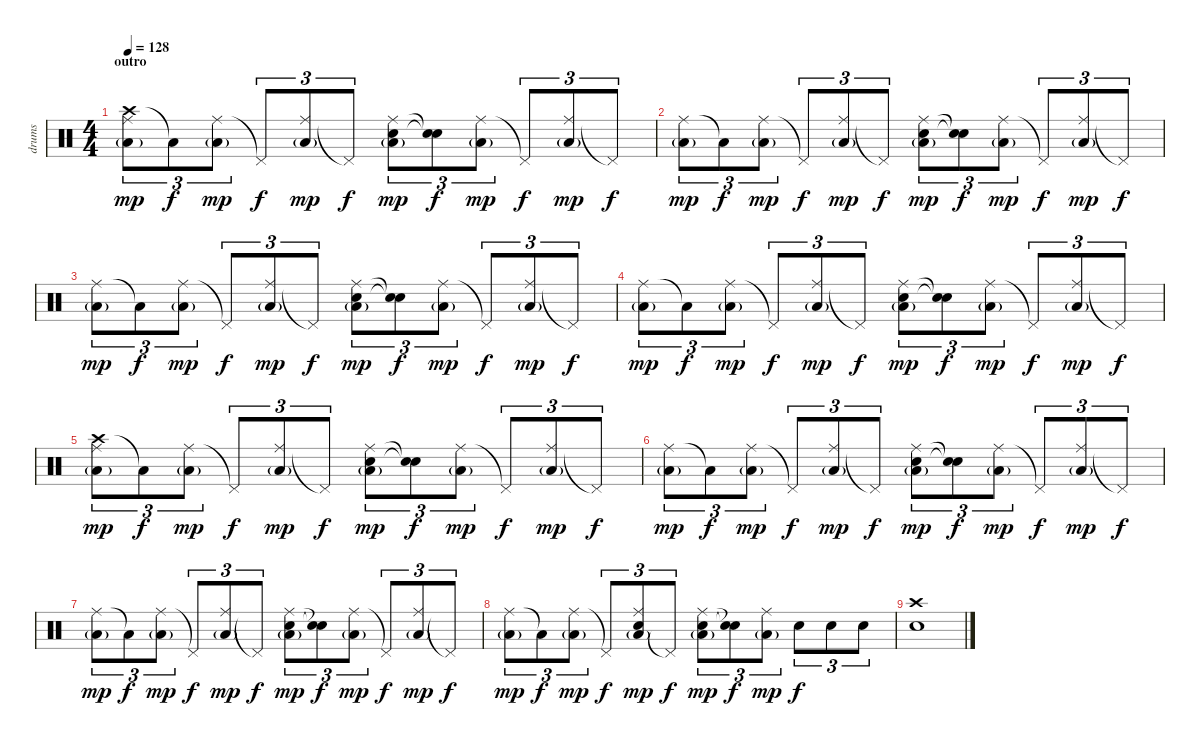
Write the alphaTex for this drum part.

\track ("drums" "drums") {instrument percussion}
\staff {score}
\articulation defaults
\ts (4 4)
\section ("" "outro")
\tempo 128
\clef neutral
\ks c
("Crash high (hit)" "Ride (middle)" "Low Floor Tom (hit)"{g}).8{tu (3 2) dy mp} "Low Floor Tom (hit)"{t}.8{tu (3 2) dy f} ("Ride (middle)" "Low Floor Tom (hit)"{g}).8{tu (3 2) dy mp} "Pedal Hi-Hat (hit)"{t}.8{tu (3 2) dy f} ("Ride (middle)" "Low Floor Tom (hit)"{g}).8{tu (3 2) dy mp} "Pedal Hi-Hat (hit)"{t}.8{tu (3 2) dy f} ("Electric Snare (hit)" "Ride (middle)" "Low Floor Tom (hit)"{g}).8{tu (3 2) dy mp} ("Electric Snare (hit)"{t} "Snare (hit)"{t}).8{tu (3 2) dy f} ("Ride (middle)" "Low Floor Tom (hit)"{g}).8{tu (3 2) dy mp} "Pedal Hi-Hat (hit)"{t}.8{tu (3 2) dy f} ("Ride (middle)" "Low Floor Tom (hit)"{g}).8{tu (3 2) dy mp} "Pedal Hi-Hat (hit)"{t}.8{tu (3 2) dy f} |
("Ride (middle)" "Low Floor Tom (hit)"{g}).8{tu (3 2) dy mp} "Low Floor Tom (hit)"{t}.8{tu (3 2) dy f} ("Ride (middle)" "Low Floor Tom (hit)"{g}).8{tu (3 2) dy mp} "Pedal Hi-Hat (hit)"{t}.8{tu (3 2) dy f} ("Ride (middle)" "Low Floor Tom (hit)"{g}).8{tu (3 2) dy mp} "Pedal Hi-Hat (hit)"{t}.8{tu (3 2) dy f} ("Electric Snare (hit)" "Ride (middle)" "Low Floor Tom (hit)"{g}).8{tu (3 2) dy mp} ("Electric Snare (hit)"{t} "Snare (hit)"{t}).8{tu (3 2) dy f} ("Ride (middle)" "Low Floor Tom (hit)"{g}).8{tu (3 2) dy mp} "Pedal Hi-Hat (hit)"{t}.8{tu (3 2) dy f} ("Ride (middle)" "Low Floor Tom (hit)"{g}).8{tu (3 2) dy mp} "Pedal Hi-Hat (hit)"{t}.8{tu (3 2) dy f} |
("Ride (middle)" "Low Floor Tom (hit)"{g}).8{tu (3 2) dy mp} "Low Floor Tom (hit)"{t}.8{tu (3 2) dy f} ("Ride (middle)" "Low Floor Tom (hit)"{g}).8{tu (3 2) dy mp} "Pedal Hi-Hat (hit)"{t}.8{tu (3 2) dy f} ("Ride (middle)" "Low Floor Tom (hit)"{g}).8{tu (3 2) dy mp} "Pedal Hi-Hat (hit)"{t}.8{tu (3 2) dy f} ("Electric Snare (hit)" "Ride (middle)" "Low Floor Tom (hit)"{g}).8{tu (3 2) dy mp} ("Electric Snare (hit)"{t} "Snare (hit)"{t}).8{tu (3 2) dy f} ("Ride (middle)" "Low Floor Tom (hit)"{g}).8{tu (3 2) dy mp} "Pedal Hi-Hat (hit)"{t}.8{tu (3 2) dy f} ("Ride (middle)" "Low Floor Tom (hit)"{g}).8{tu (3 2) dy mp} "Pedal Hi-Hat (hit)"{t}.8{tu (3 2) dy f} |
("Ride (middle)" "Low Floor Tom (hit)"{g}).8{tu (3 2) dy mp} "Low Floor Tom (hit)"{t}.8{tu (3 2) dy f} ("Ride (middle)" "Low Floor Tom (hit)"{g}).8{tu (3 2) dy mp} "Pedal Hi-Hat (hit)"{t}.8{tu (3 2) dy f} ("Ride (middle)" "Low Floor Tom (hit)"{g}).8{tu (3 2) dy mp} "Pedal Hi-Hat (hit)"{t}.8{tu (3 2) dy f} ("Electric Snare (hit)" "Ride (middle)" "Low Floor Tom (hit)"{g}).8{tu (3 2) dy mp} ("Electric Snare (hit)"{t} "Snare (hit)"{t}).8{tu (3 2) dy f} ("Ride (middle)" "Low Floor Tom (hit)"{g}).8{tu (3 2) dy mp} "Pedal Hi-Hat (hit)"{t}.8{tu (3 2) dy f} ("Ride (middle)" "Low Floor Tom (hit)"{g}).8{tu (3 2) dy mp} "Pedal Hi-Hat (hit)"{t}.8{tu (3 2) dy f} |
("Crash high (hit)" "Ride (middle)" "Low Floor Tom (hit)"{g}).8{tu (3 2) dy mp} "Low Floor Tom (hit)"{t}.8{tu (3 2) dy f} ("Ride (middle)" "Low Floor Tom (hit)"{g}).8{tu (3 2) dy mp} "Pedal Hi-Hat (hit)"{t}.8{tu (3 2) dy f} ("Ride (middle)" "Low Floor Tom (hit)"{g}).8{tu (3 2) dy mp} "Pedal Hi-Hat (hit)"{t}.8{tu (3 2) dy f} ("Electric Snare (hit)" "Ride (middle)" "Low Floor Tom (hit)"{g}).8{tu (3 2) dy mp} ("Electric Snare (hit)"{t} "Snare (hit)"{t}).8{tu (3 2) dy f} ("Ride (middle)" "Low Floor Tom (hit)"{g}).8{tu (3 2) dy mp} "Pedal Hi-Hat (hit)"{t}.8{tu (3 2) dy f} ("Ride (middle)" "Low Floor Tom (hit)"{g}).8{tu (3 2) dy mp} "Pedal Hi-Hat (hit)"{t}.8{tu (3 2) dy f} |
("Ride (middle)" "Low Floor Tom (hit)"{g}).8{tu (3 2) dy mp} "Low Floor Tom (hit)"{t}.8{tu (3 2) dy f} ("Ride (middle)" "Low Floor Tom (hit)"{g}).8{tu (3 2) dy mp} "Pedal Hi-Hat (hit)"{t}.8{tu (3 2) dy f} ("Ride (middle)" "Low Floor Tom (hit)"{g}).8{tu (3 2) dy mp} "Pedal Hi-Hat (hit)"{t}.8{tu (3 2) dy f} ("Electric Snare (hit)" "Ride (middle)" "Low Floor Tom (hit)"{g}).8{tu (3 2) dy mp} ("Electric Snare (hit)"{t} "Snare (hit)"{t}).8{tu (3 2) dy f} ("Ride (middle)" "Low Floor Tom (hit)"{g}).8{tu (3 2) dy mp} "Pedal Hi-Hat (hit)"{t}.8{tu (3 2) dy f} ("Ride (middle)" "Low Floor Tom (hit)"{g}).8{tu (3 2) dy mp} "Pedal Hi-Hat (hit)"{t}.8{tu (3 2) dy f} |
("Ride (middle)" "Low Floor Tom (hit)"{g}).8{tu (3 2) dy mp} "Low Floor Tom (hit)"{t}.8{tu (3 2) dy f} ("Ride (middle)" "Low Floor Tom (hit)"{g}).8{tu (3 2) dy mp} "Pedal Hi-Hat (hit)"{t}.8{tu (3 2) dy f} ("Ride (middle)" "Low Floor Tom (hit)"{g}).8{tu (3 2) dy mp} "Pedal Hi-Hat (hit)"{t}.8{tu (3 2) dy f} ("Electric Snare (hit)" "Ride (middle)" "Low Floor Tom (hit)"{g}).8{tu (3 2) dy mp} ("Electric Snare (hit)"{t} "Snare (hit)"{t}).8{tu (3 2) dy f} ("Ride (middle)" "Low Floor Tom (hit)"{g}).8{tu (3 2) dy mp} "Pedal Hi-Hat (hit)"{t}.8{tu (3 2) dy f} ("Ride (middle)" "Low Floor Tom (hit)"{g}).8{tu (3 2) dy mp} "Pedal Hi-Hat (hit)"{t}.8{tu (3 2) dy f} |
("Ride (middle)" "Low Floor Tom (hit)"{g}).8{tu (3 2) dy mp} "Low Floor Tom (hit)"{t}.8{tu (3 2) dy f} ("Ride (middle)" "Low Floor Tom (hit)"{g}).8{tu (3 2) dy mp} "Pedal Hi-Hat (hit)"{t}.8{tu (3 2) dy f} ("Electric Snare (hit)" "Ride (middle)" "Low Floor Tom (hit)"{g}).8{tu (3 2) dy mp} "Pedal Hi-Hat (hit)"{t}.8{tu (3 2) dy f} ("Electric Snare (hit)" "Ride (middle)" "Low Floor Tom (hit)"{g}).8{tu (3 2) dy mp} ("Electric Snare (hit)"{t} "Snare (hit)"{t}).8{tu (3 2) dy f} ("Ride (middle)" "Low Floor Tom (hit)"{g}).8{tu (3 2) dy mp} "Electric Snare (hit)".8{tu (3 2) dy f} "Electric Snare (hit)".8{tu (3 2)} "Electric Snare (hit)".8{tu (3 2)} |
("Electric Snare (hit)" "Crash high (hit)").1
